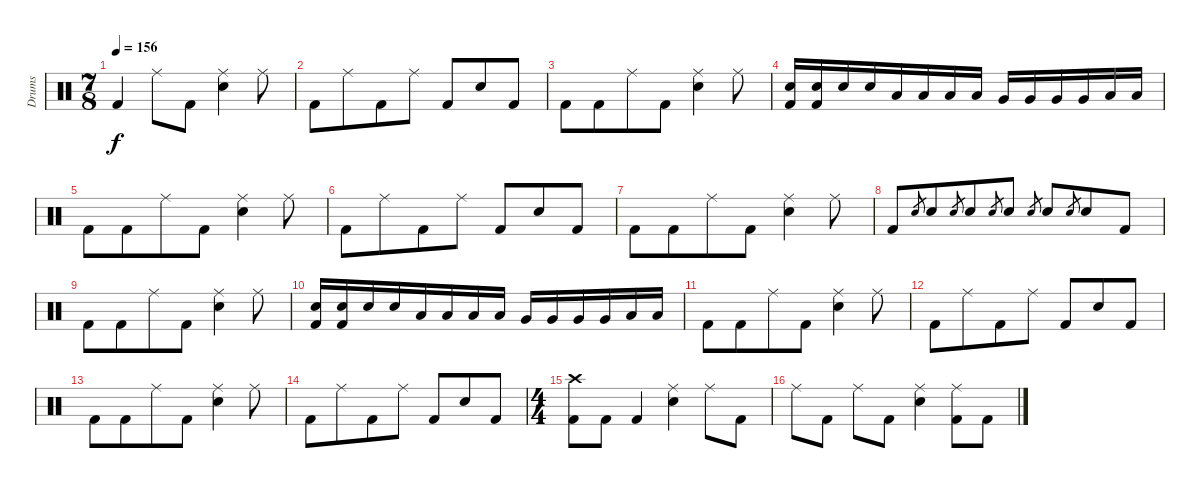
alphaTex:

\track ("Drums" "Drums") {instrument percussion}
\staff {score}
\articulation defaults
\ts (7 8)
\tempo 156
\clef neutral
\ks c "Kick (hit) 2".4{dy f} "Ride (middle)".8 "Kick (hit) 2".8
("Ride (middle)" "Electric Snare (hit)").4 "Ride (middle)".8 |
"Kick (hit) 2".8 "Ride (middle)".8 "Kick (hit) 2".8 "Ride (middle)".8 "Kick (hit) 2".8 "Electric Snare (hit)".8 "Kick (hit) 2".8 |
"Kick (hit) 2".8 "Kick (hit) 2".8 "Ride (middle)".8 "Kick (hit) 2".8 ("Ride (middle)" "Electric Snare (hit)").4 "Ride (middle)".8 |
("Electric Snare (hit)" "Kick (hit) 2").16 ("Electric Snare (hit)" "Kick (hit) 2").16 "Electric Snare (hit)".16 "Electric Snare (hit)".16 "Low Tom (hit)".16 "Low Tom (hit)".16 "Low Tom (hit)".16 "Low Tom (hit)".16 "Very Low Tom (hit)".16 "Very Low Tom (hit)".16 "Very Low Tom (hit)".16 "Very Low Tom (hit)".16 "Low Floor Tom (hit)".16 "Low Floor Tom (hit)".16 |
"Kick (hit) 2".8 "Kick (hit) 2".8 "Ride (middle)".8 "Kick (hit) 2".8 ("Ride (middle)" "Electric Snare (hit)").4 "Ride (middle)".8 |
"Kick (hit) 2".8 "Ride (middle)".8 "Kick (hit) 2".8 "Ride (middle)".8 "Kick (hit) 2".8 "Electric Snare (hit)".8 "Kick (hit) 2".8 |
"Kick (hit) 2".8 "Kick (hit) 2".8 "Ride (middle)".8 "Kick (hit) 2".8 ("Ride (middle)" "Electric Snare (hit)").4 "Ride (middle)".8 |
"Kick (hit) 2".8 "Electric Snare (hit)".8{gr} "Electric Snare (hit)".8 "Electric Snare (hit)".8{gr} "Electric Snare (hit)".8 "Electric Snare (hit)".8{gr} "Electric Snare (hit)".8 "Electric Snare (hit)".8{gr} "Electric Snare (hit)".8 "Electric Snare (hit)".8{gr} "Electric Snare (hit)".8 "Kick (hit) 2".8 |
"Kick (hit) 2".8 "Kick (hit) 2".8 "Ride (middle)".8 "Kick (hit) 2".8 ("Ride (middle)" "Electric Snare (hit)").4 "Ride (middle)".8 |
("Electric Snare (hit)" "Kick (hit) 2").16 ("Electric Snare (hit)" "Kick (hit) 2").16 "Electric Snare (hit)".16 "Electric Snare (hit)".16 "Low Tom (hit)".16 "Low Tom (hit)".16 "Low Tom (hit)".16 "Low Tom (hit)".16 "Very Low Tom (hit)".16 "Very Low Tom (hit)".16 "Very Low Tom (hit)".16 "Very Low Tom (hit)".16 "Low Floor Tom (hit)".16 "Low Floor Tom (hit)".16 |
"Kick (hit) 2".8 "Kick (hit) 2".8 "Ride (middle)".8 "Kick (hit) 2".8 ("Ride (middle)" "Electric Snare (hit)").4 "Ride (middle)".8 |
"Kick (hit) 2".8 "Ride (middle)".8 "Kick (hit) 2".8 "Ride (middle)".8 "Kick (hit) 2".8 "Electric Snare (hit)".8 "Kick (hit) 2".8 |
"Kick (hit) 2".8 "Kick (hit) 2".8 "Ride (middle)".8 "Kick (hit) 2".8 ("Ride (middle)" "Electric Snare (hit)").4 "Ride (middle)".8 |
"Kick (hit) 2".8 "Ride (middle)".8 "Kick (hit) 2".8 "Ride (middle)".8 "Kick (hit) 2".8 "Electric Snare (hit)".8 "Kick (hit) 2".8 |
\ts (4 4)
("Crash high (hit)" "Kick (hit) 2").8 "Kick (hit) 2".8 "Kick (hit) 2".4 ("Ride (middle)" "Electric Snare (hit)").4 "Ride (middle)".8 "Kick (hit) 2".8 |
"Ride (middle)".8 "Kick (hit) 2".8 "Ride (middle)".8 "Kick (hit) 2".8 ("Ride (middle)" "Electric Snare (hit)").4 ("Ride (middle)" "Kick (hit) 2").8 "Kick (hit) 2".8
